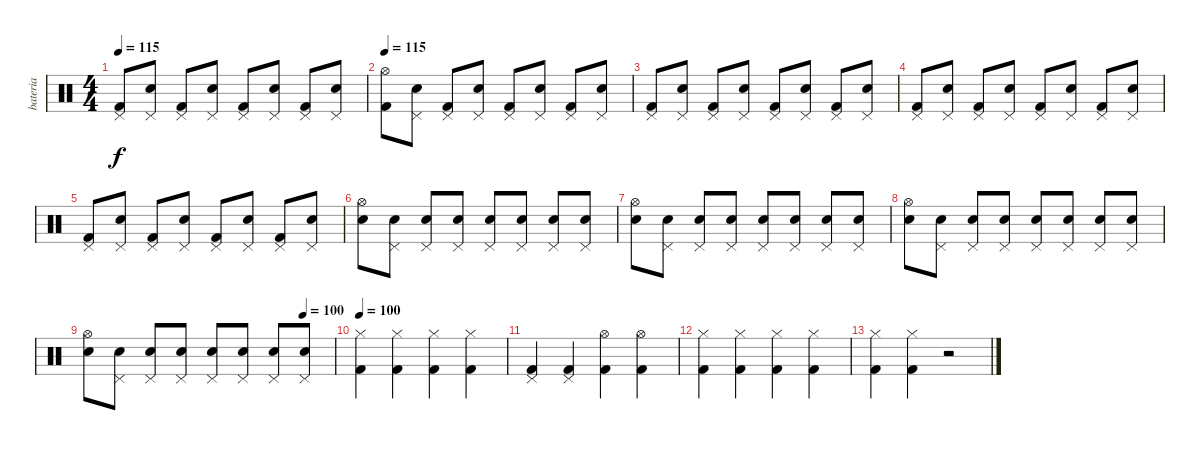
\track ("bateria" "bateria") {instrument percussion}
\staff {score}
\articulation defaults
\ts (4 4)
\tempo 115
\clef neutral
\ks c
("Pedal Hi-Hat (hit)" "Kick (hit) 2").8{dy f} ("Pedal Hi-Hat (hit)" "Snare (hit) 2").8 ("Pedal Hi-Hat (hit)" "Kick (hit) 2").8 ("Pedal Hi-Hat (hit)" "Snare (hit) 2").8 ("Pedal Hi-Hat (hit)" "Kick (hit) 2").8 ("Pedal Hi-Hat (hit)" "Snare (hit) 2").8 ("Pedal Hi-Hat (hit)" "Kick (hit) 2").8 ("Pedal Hi-Hat (hit)" "Snare (hit) 2").8 |
\section ("" "")
\tempo 115
("Hi-Hat (open)" "Kick (hit) 2").8 ("Pedal Hi-Hat (hit)" "Snare (hit) 2").8 ("Pedal Hi-Hat (hit)" "Kick (hit) 2").8 ("Pedal Hi-Hat (hit)" "Snare (hit) 2").8 ("Pedal Hi-Hat (hit)" "Kick (hit) 2").8 ("Pedal Hi-Hat (hit)" "Snare (hit) 2").8 ("Pedal Hi-Hat (hit)" "Kick (hit) 2").8 ("Pedal Hi-Hat (hit)" "Snare (hit) 2").8 |
("Pedal Hi-Hat (hit)" "Kick (hit) 2").8 ("Pedal Hi-Hat (hit)" "Snare (hit) 2").8 ("Pedal Hi-Hat (hit)" "Kick (hit) 2").8 ("Pedal Hi-Hat (hit)" "Snare (hit) 2").8 ("Pedal Hi-Hat (hit)" "Kick (hit) 2").8 ("Pedal Hi-Hat (hit)" "Snare (hit) 2").8 ("Pedal Hi-Hat (hit)" "Kick (hit) 2").8 ("Pedal Hi-Hat (hit)" "Snare (hit) 2").8 |
("Pedal Hi-Hat (hit)" "Kick (hit) 2").8 ("Pedal Hi-Hat (hit)" "Snare (hit) 2").8 ("Pedal Hi-Hat (hit)" "Kick (hit) 2").8 ("Pedal Hi-Hat (hit)" "Snare (hit) 2").8 ("Pedal Hi-Hat (hit)" "Kick (hit) 2").8 ("Pedal Hi-Hat (hit)" "Snare (hit) 2").8 ("Pedal Hi-Hat (hit)" "Kick (hit) 2").8 ("Pedal Hi-Hat (hit)" "Snare (hit) 2").8 |
("Pedal Hi-Hat (hit)" "Kick (hit) 2").8 ("Pedal Hi-Hat (hit)" "Snare (hit) 2").8 ("Pedal Hi-Hat (hit)" "Kick (hit) 2").8 ("Pedal Hi-Hat (hit)" "Snare (hit) 2").8 ("Pedal Hi-Hat (hit)" "Kick (hit) 2").8 ("Pedal Hi-Hat (hit)" "Snare (hit) 2").8 ("Pedal Hi-Hat (hit)" "Kick (hit) 2").8 ("Pedal Hi-Hat (hit)" "Snare (hit) 2").8 |
("Hi-Hat (open)" "Snare (hit) 2").8 ("Pedal Hi-Hat (hit)" "Snare (hit) 2").8 ("Pedal Hi-Hat (hit)" "Snare (hit) 2").8 ("Pedal Hi-Hat (hit)" "Snare (hit) 2").8 ("Pedal Hi-Hat (hit)" "Snare (hit) 2").8 ("Pedal Hi-Hat (hit)" "Snare (hit) 2").8 ("Pedal Hi-Hat (hit)" "Snare (hit) 2").8 ("Pedal Hi-Hat (hit)" "Snare (hit) 2").8 |
("Hi-Hat (open)" "Snare (hit) 2").8 ("Pedal Hi-Hat (hit)" "Snare (hit) 2").8 ("Pedal Hi-Hat (hit)" "Snare (hit) 2").8 ("Pedal Hi-Hat (hit)" "Snare (hit) 2").8 ("Pedal Hi-Hat (hit)" "Snare (hit) 2").8 ("Pedal Hi-Hat (hit)" "Snare (hit) 2").8 ("Pedal Hi-Hat (hit)" "Snare (hit) 2").8 ("Pedal Hi-Hat (hit)" "Snare (hit) 2").8 |
("Hi-Hat (open)" "Snare (hit) 2").8 ("Pedal Hi-Hat (hit)" "Snare (hit) 2").8 ("Pedal Hi-Hat (hit)" "Snare (hit) 2").8 ("Pedal Hi-Hat (hit)" "Snare (hit) 2").8 ("Pedal Hi-Hat (hit)" "Snare (hit) 2").8 ("Pedal Hi-Hat (hit)" "Snare (hit) 2").8 ("Pedal Hi-Hat (hit)" "Snare (hit) 2").8 ("Pedal Hi-Hat (hit)" "Snare (hit) 2").8 |
\tempo (100 0.875)
("Hi-Hat (open)" "Snare (hit) 2").8 ("Pedal Hi-Hat (hit)" "Snare (hit) 2").8 ("Pedal Hi-Hat (hit)" "Snare (hit) 2").8 ("Pedal Hi-Hat (hit)" "Snare (hit) 2").8 ("Pedal Hi-Hat (hit)" "Snare (hit) 2").8 ("Pedal Hi-Hat (hit)" "Snare (hit) 2").8 ("Pedal Hi-Hat (hit)" "Snare (hit) 2").8 ("Pedal Hi-Hat (hit)" "Snare (hit) 2").8 |
\section ("" "")
\tempo 100
("Hi-Hat (closed)" "Kick (hit) 2").4{volume 11} ("Hi-Hat (closed)" "Kick (hit) 2").4 ("Hi-Hat (closed)" "Kick (hit) 2").4 ("Hi-Hat (closed)" "Kick (hit) 2").4 |
("Pedal Hi-Hat (hit)" "Kick (hit) 2").4 ("Pedal Hi-Hat (hit)" "Kick (hit) 2").4 ("Hi-Hat (open)" "Kick (hit) 2").4 ("Hi-Hat (open)" "Kick (hit) 2").4 |
("Hi-Hat (closed)" "Kick (hit) 2").4 ("Hi-Hat (closed)" "Kick (hit) 2").4 ("Hi-Hat (closed)" "Kick (hit) 2").4 ("Hi-Hat (closed)" "Kick (hit) 2").4 |
("Hi-Hat (closed)" "Kick (hit) 2").4 ("Hi-Hat (closed)" "Kick (hit) 2").4 r.2
